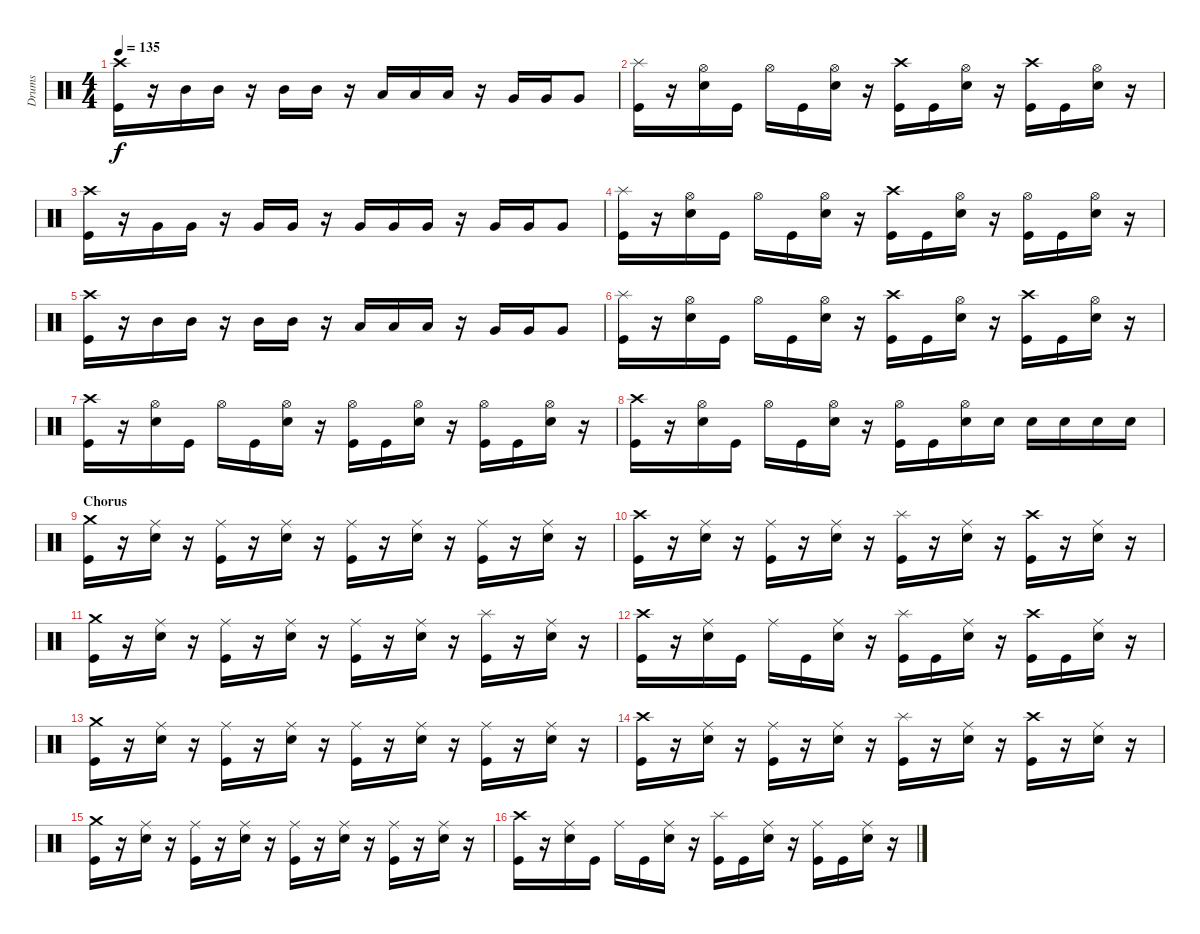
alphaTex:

\track ("Drums" "Drums") {instrument percussion}
\staff {score}
\articulation defaults
\ts (4 4)
\tempo 135
\clef neutral
\ks c
("Crash high (hit)" "Kick (hit)").16{dy f} r.16 "Mid Tom (hit)".16 "Mid Tom (hit)".16 r.16 "Mid Tom (hit)".16 "Mid Tom (hit)".16 r.16 "Low Tom (hit)".16 "Low Tom (hit)".16 "Low Tom (hit)".16 r.16 "Very Low Tom (hit)".16 "Very Low Tom (hit)".16 "Very Low Tom (hit)".8 |
("Splash (hit)" "Kick (hit)").16 r.16 ("Hi-Hat (open)" "Snare (hit) 2").16 "Kick (hit)".16 "Hi-Hat (open)".16 "Kick (hit)".16 ("Hi-Hat (open)" "Snare (hit) 2").16 r.16 ("Crash high (hit)" "Kick (hit)").16 "Kick (hit)".16 ("Hi-Hat (open)" "Snare (hit) 2").16 r.16 ("Crash high (hit)" "Kick (hit)").16 "Kick (hit)".16 ("Hi-Hat (open)" "Snare (hit) 2").16 r.16 |
("Crash high (hit)" "Kick (hit)").16 r.16 "Very Low Tom (hit)".16 "Very Low Tom (hit)".16 r.16 "Very Low Tom (hit)".16 "Very Low Tom (hit)".16 r.16 "Very Low Tom (hit)".16 "Very Low Tom (hit)".16 "Very Low Tom (hit)".16 r.16 "Very Low Tom (hit)".16 "Very Low Tom (hit)".16 "Very Low Tom (hit)".8 |
("Splash (hit)" "Kick (hit)").16 r.16 ("Hi-Hat (open)" "Snare (hit) 2").16 "Kick (hit)".16 "Hi-Hat (open)".16 "Kick (hit)".16 ("Hi-Hat (open)" "Snare (hit) 2").16 r.16 ("Crash high (hit)" "Kick (hit)").16 "Kick (hit)".16 ("Hi-Hat (open)" "Snare (hit) 2").16 r.16 ("Hi-Hat (open)" "Kick (hit)").16 "Kick (hit)".16 ("Hi-Hat (open)" "Snare (hit) 2").16 r.16 |
("Crash high (hit)" "Kick (hit)").16 r.16 "Mid Tom (hit)".16 "Mid Tom (hit)".16 r.16 "Mid Tom (hit)".16 "Mid Tom (hit)".16 r.16 "Low Tom (hit)".16 "Low Tom (hit)".16 "Low Tom (hit)".16 r.16 "Very Low Tom (hit)".16 "Very Low Tom (hit)".16 "Very Low Tom (hit)".8 |
("Splash (hit)" "Kick (hit)").16 r.16 ("Hi-Hat (open)" "Snare (hit) 2").16 "Kick (hit)".16 "Hi-Hat (open)".16 "Kick (hit)".16 ("Hi-Hat (open)" "Snare (hit) 2").16 r.16 ("Crash high (hit)" "Kick (hit)").16 "Kick (hit)".16 ("Hi-Hat (open)" "Snare (hit) 2").16 r.16 ("Crash high (hit)" "Kick (hit)").16 "Kick (hit)".16 ("Hi-Hat (open)" "Snare (hit) 2").16 r.16 |
("Crash high (hit)" "Kick (hit)").16 r.16 ("Hi-Hat (open)" "Snare (hit) 2").16 "Kick (hit)".16 "Hi-Hat (open)".16 "Kick (hit)".16 ("Hi-Hat (open)" "Snare (hit) 2").16 r.16 ("Hi-Hat (open)" "Kick (hit)").16 "Kick (hit)".16 ("Hi-Hat (open)" "Snare (hit) 2").16 r.16 ("Hi-Hat (open)" "Kick (hit)").16 "Kick (hit)".16 ("Hi-Hat (open)" "Snare (hit) 2").16 r.16 |
("Crash high (hit)" "Kick (hit)").16 r.16 ("Hi-Hat (open)" "Snare (hit) 2").16 "Kick (hit)".16 "Hi-Hat (open)".16 "Kick (hit)".16 ("Hi-Hat (open)" "Snare (hit) 2").16 r.16 ("Hi-Hat (open)" "Kick (hit)").16 "Kick (hit)".16 ("Hi-Hat (open)" "Snare (hit) 2").16 "Snare (hit) 2".16 "Snare (hit) 2".16 "Snare (hit) 2".16 "Snare (hit) 2".16 "Snare (hit) 2".16 |
\section ("" "Chorus")
("Crash medium (hit)" "Kick (hit)").16 r.16 ("Ride (middle)" "Snare (hit) 2").16 r.16 ("Ride (middle)" "Kick (hit)").16 r.16 ("Ride (middle)" "Snare (hit) 2").16 r.16 ("Ride (middle)" "Kick (hit)").16 r.16 ("Ride (middle)" "Snare (hit) 2").16 r.16 ("Ride (middle)" "Kick (hit)").16 r.16 ("Ride (middle)" "Snare (hit) 2").16 r.16 |
("Crash high (hit)" "Kick (hit)").16 r.16 ("Ride (middle)" "Snare (hit) 2").16 r.16 ("Ride (middle)" "Kick (hit)").16 r.16 ("Ride (middle)" "Snare (hit) 2").16 r.16 ("Splash (hit)" "Kick (hit)").16 r.16 ("Ride (middle)" "Snare (hit) 2").16 r.16 ("Crash high (hit)" "Kick (hit)").16 r.16 ("Ride (middle)" "Snare (hit) 2").16 r.16 |
("Crash medium (hit)" "Kick (hit)").16 r.16 ("Ride (middle)" "Snare (hit) 2").16 r.16 ("Ride (middle)" "Kick (hit)").16 r.16 ("Ride (middle)" "Snare (hit) 2").16 r.16 ("Ride (middle)" "Kick (hit)").16 r.16 ("Ride (middle)" "Snare (hit) 2").16 r.16 ("Splash (hit)" "Kick (hit)").16 r.16 ("Ride (middle)" "Snare (hit) 2").16 r.16 |
("Crash high (hit)" "Kick (hit)").16 r.16 ("Ride (middle)" "Snare (hit) 2").16 "Kick (hit)".16 "Ride (middle)".16 "Kick (hit)".16 ("Ride (middle)" "Snare (hit) 2").16 r.16 ("Splash (hit)" "Kick (hit)").16 "Kick (hit)".16 ("Ride (middle)" "Snare (hit) 2").16 r.16 ("Crash high (hit)" "Kick (hit)").16 "Kick (hit)".16 ("Ride (middle)" "Snare (hit) 2").16 r.16 |
("Crash medium (hit)" "Kick (hit)").16 r.16 ("Ride (middle)" "Snare (hit) 2").16 r.16 ("Ride (middle)" "Kick (hit)").16 r.16 ("Ride (middle)" "Snare (hit) 2").16 r.16 ("Ride (middle)" "Kick (hit)").16 r.16 ("Ride (middle)" "Snare (hit) 2").16 r.16 ("Ride (middle)" "Kick (hit)").16 r.16 ("Ride (middle)" "Snare (hit) 2").16 r.16 |
("Crash high (hit)" "Kick (hit)").16 r.16 ("Ride (middle)" "Snare (hit) 2").16 r.16 ("Ride (middle)" "Kick (hit)").16 r.16 ("Ride (middle)" "Snare (hit) 2").16 r.16 ("Splash (hit)" "Kick (hit)").16 r.16 ("Ride (middle)" "Snare (hit) 2").16 r.16 ("Crash high (hit)" "Kick (hit)").16 r.16 ("Ride (middle)" "Snare (hit) 2").16 r.16 |
("Crash medium (hit)" "Kick (hit)").16 r.16 ("Ride (middle)" "Snare (hit) 2").16 r.16 ("Ride (middle)" "Kick (hit)").16 r.16 ("Ride (middle)" "Snare (hit) 2").16 r.16 ("Ride (middle)" "Kick (hit)").16 r.16 ("Ride (middle)" "Snare (hit) 2").16 r.16 ("Ride (middle)" "Kick (hit)").16 r.16 ("Ride (middle)" "Snare (hit) 2").16 r.16 |
("Crash high (hit)" "Kick (hit)").16 r.16 ("Ride (middle)" "Snare (hit) 2").16 "Kick (hit)".16 "Ride (middle)".16 "Kick (hit)".16 ("Ride (middle)" "Snare (hit) 2").16 r.16 ("Splash (hit)" "Kick (hit)").16 "Kick (hit)".16 ("Ride (middle)" "Snare (hit) 2").16 r.16 ("Ride (middle)" "Kick (hit)").16 "Kick (hit)".16 ("Ride (middle)" "Snare (hit) 2").16 r.16
